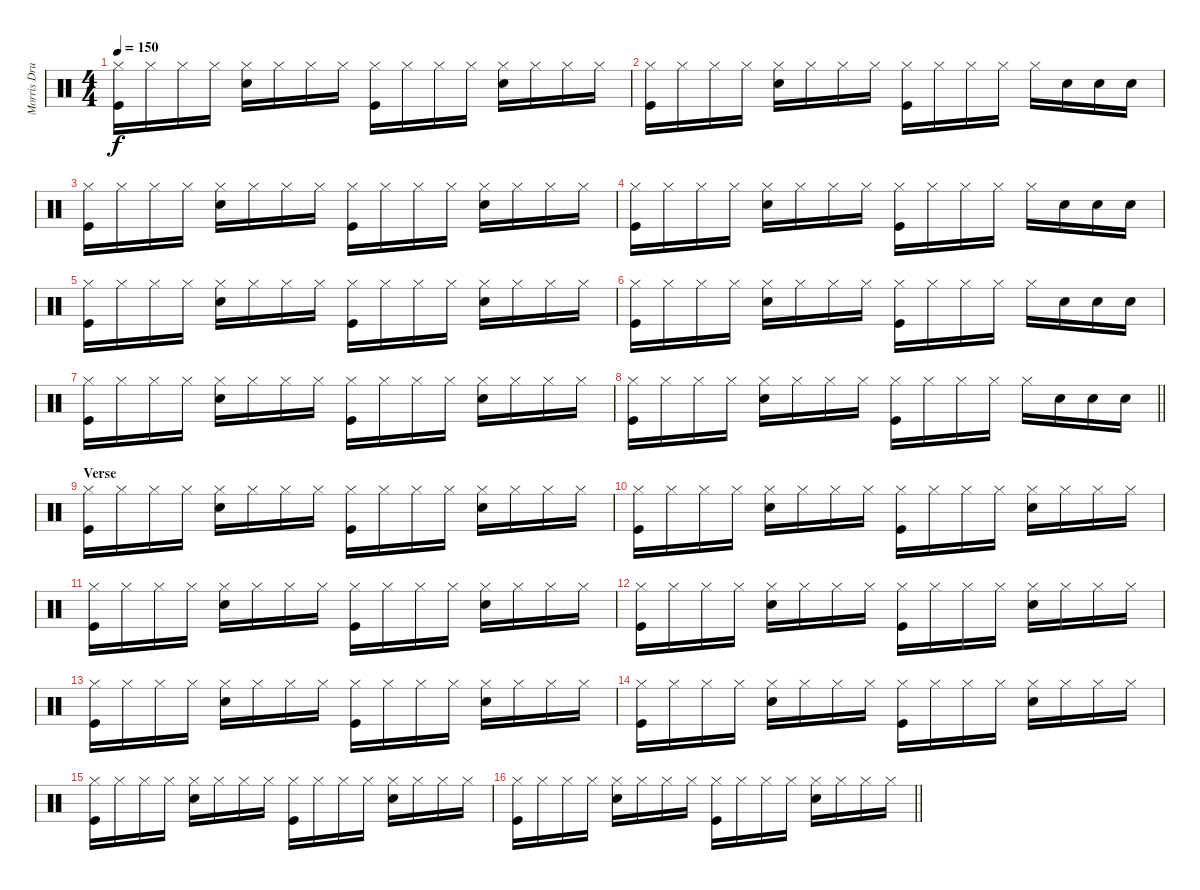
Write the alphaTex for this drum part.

\track ("Morris Drums" "Morris Dru") {instrument percussion}
\staff {score}
\articulation defaults
\ts (4 4)
\tempo 150
\clef neutral
\ks c
("Hi-Hat (closed)" "Kick (hit)").16{dy f} "Hi-Hat (closed)".16 "Hi-Hat (closed)".16 "Hi-Hat (closed)".16 ("Hi-Hat (closed)" "Snare (hit) 2").16 "Hi-Hat (closed)".16 "Hi-Hat (closed)".16 "Hi-Hat (closed)".16 ("Hi-Hat (closed)" "Kick (hit)").16 "Hi-Hat (closed)".16 "Hi-Hat (closed)".16 "Hi-Hat (closed)".16 ("Hi-Hat (closed)" "Snare (hit) 2").16 "Hi-Hat (closed)".16 "Hi-Hat (closed)".16 "Hi-Hat (closed)".16 |
("Hi-Hat (closed)" "Kick (hit)").16 "Hi-Hat (closed)".16 "Hi-Hat (closed)".16 "Hi-Hat (closed)".16 ("Hi-Hat (closed)" "Snare (hit) 2").16 "Hi-Hat (closed)".16 "Hi-Hat (closed)".16 "Hi-Hat (closed)".16 ("Hi-Hat (closed)" "Kick (hit)").16 "Hi-Hat (closed)".16 "Hi-Hat (closed)".16 "Hi-Hat (closed)".16 "Hi-Hat (closed)".16 "Snare (hit) 2".16 "Snare (hit) 2".16 "Snare (hit) 2".16 |
("Hi-Hat (closed)" "Kick (hit)").16 "Hi-Hat (closed)".16 "Hi-Hat (closed)".16 "Hi-Hat (closed)".16 ("Hi-Hat (closed)" "Snare (hit) 2").16 "Hi-Hat (closed)".16 "Hi-Hat (closed)".16 "Hi-Hat (closed)".16 ("Hi-Hat (closed)" "Kick (hit)").16 "Hi-Hat (closed)".16 "Hi-Hat (closed)".16 "Hi-Hat (closed)".16 ("Hi-Hat (closed)" "Snare (hit) 2").16 "Hi-Hat (closed)".16 "Hi-Hat (closed)".16 "Hi-Hat (closed)".16 |
("Hi-Hat (closed)" "Kick (hit)").16 "Hi-Hat (closed)".16 "Hi-Hat (closed)".16 "Hi-Hat (closed)".16 ("Hi-Hat (closed)" "Snare (hit) 2").16 "Hi-Hat (closed)".16 "Hi-Hat (closed)".16 "Hi-Hat (closed)".16 ("Hi-Hat (closed)" "Kick (hit)").16 "Hi-Hat (closed)".16 "Hi-Hat (closed)".16 "Hi-Hat (closed)".16 "Hi-Hat (closed)".16 "Snare (hit) 2".16 "Snare (hit) 2".16 "Snare (hit) 2".16 |
("Hi-Hat (closed)" "Kick (hit)").16 "Hi-Hat (closed)".16 "Hi-Hat (closed)".16 "Hi-Hat (closed)".16 ("Hi-Hat (closed)" "Snare (hit) 2").16 "Hi-Hat (closed)".16 "Hi-Hat (closed)".16 "Hi-Hat (closed)".16 ("Hi-Hat (closed)" "Kick (hit)").16 "Hi-Hat (closed)".16 "Hi-Hat (closed)".16 "Hi-Hat (closed)".16 ("Hi-Hat (closed)" "Snare (hit) 2").16 "Hi-Hat (closed)".16 "Hi-Hat (closed)".16 "Hi-Hat (closed)".16 |
("Hi-Hat (closed)" "Kick (hit)").16 "Hi-Hat (closed)".16 "Hi-Hat (closed)".16 "Hi-Hat (closed)".16 ("Hi-Hat (closed)" "Snare (hit) 2").16 "Hi-Hat (closed)".16 "Hi-Hat (closed)".16 "Hi-Hat (closed)".16 ("Hi-Hat (closed)" "Kick (hit)").16 "Hi-Hat (closed)".16 "Hi-Hat (closed)".16 "Hi-Hat (closed)".16 "Hi-Hat (closed)".16 "Snare (hit) 2".16 "Snare (hit) 2".16 "Snare (hit) 2".16 |
("Hi-Hat (closed)" "Kick (hit)").16 "Hi-Hat (closed)".16 "Hi-Hat (closed)".16 "Hi-Hat (closed)".16 ("Hi-Hat (closed)" "Snare (hit) 2").16 "Hi-Hat (closed)".16 "Hi-Hat (closed)".16 "Hi-Hat (closed)".16 ("Hi-Hat (closed)" "Kick (hit)").16 "Hi-Hat (closed)".16 "Hi-Hat (closed)".16 "Hi-Hat (closed)".16 ("Hi-Hat (closed)" "Snare (hit) 2").16 "Hi-Hat (closed)".16 "Hi-Hat (closed)".16 "Hi-Hat (closed)".16 |
\barLineRight lightlight
("Hi-Hat (closed)" "Kick (hit)").16 "Hi-Hat (closed)".16 "Hi-Hat (closed)".16 "Hi-Hat (closed)".16 ("Hi-Hat (closed)" "Snare (hit) 2").16 "Hi-Hat (closed)".16 "Hi-Hat (closed)".16 "Hi-Hat (closed)".16 ("Hi-Hat (closed)" "Kick (hit)").16 "Hi-Hat (closed)".16 "Hi-Hat (closed)".16 "Hi-Hat (closed)".16 "Hi-Hat (closed)".16 "Snare (hit) 2".16 "Snare (hit) 2".16 "Snare (hit) 2".16 |
\section ("" "Verse")
("Hi-Hat (closed)" "Kick (hit)").16 "Hi-Hat (closed)".16 "Hi-Hat (closed)".16 "Hi-Hat (closed)".16 ("Hi-Hat (closed)" "Snare (hit) 2").16 "Hi-Hat (closed)".16 "Hi-Hat (closed)".16 "Hi-Hat (closed)".16 ("Hi-Hat (closed)" "Kick (hit)").16 "Hi-Hat (closed)".16 "Hi-Hat (closed)".16 "Hi-Hat (closed)".16 ("Hi-Hat (closed)" "Snare (hit) 2").16 "Hi-Hat (closed)".16 "Hi-Hat (closed)".16 "Hi-Hat (closed)".16 |
("Hi-Hat (closed)" "Kick (hit)").16 "Hi-Hat (closed)".16 "Hi-Hat (closed)".16 "Hi-Hat (closed)".16 ("Hi-Hat (closed)" "Snare (hit) 2").16 "Hi-Hat (closed)".16 "Hi-Hat (closed)".16 "Hi-Hat (closed)".16 ("Hi-Hat (closed)" "Kick (hit)").16 "Hi-Hat (closed)".16 "Hi-Hat (closed)".16 "Hi-Hat (closed)".16 ("Hi-Hat (closed)" "Snare (hit) 2").16 "Hi-Hat (closed)".16 "Hi-Hat (closed)".16 "Hi-Hat (closed)".16 |
("Hi-Hat (closed)" "Kick (hit)").16 "Hi-Hat (closed)".16 "Hi-Hat (closed)".16 "Hi-Hat (closed)".16 ("Hi-Hat (closed)" "Snare (hit) 2").16 "Hi-Hat (closed)".16 "Hi-Hat (closed)".16 "Hi-Hat (closed)".16 ("Hi-Hat (closed)" "Kick (hit)").16 "Hi-Hat (closed)".16 "Hi-Hat (closed)".16 "Hi-Hat (closed)".16 ("Hi-Hat (closed)" "Snare (hit) 2").16 "Hi-Hat (closed)".16 "Hi-Hat (closed)".16 "Hi-Hat (closed)".16 |
("Hi-Hat (closed)" "Kick (hit)").16 "Hi-Hat (closed)".16 "Hi-Hat (closed)".16 "Hi-Hat (closed)".16 ("Hi-Hat (closed)" "Snare (hit) 2").16 "Hi-Hat (closed)".16 "Hi-Hat (closed)".16 "Hi-Hat (closed)".16 ("Hi-Hat (closed)" "Kick (hit)").16 "Hi-Hat (closed)".16 "Hi-Hat (closed)".16 "Hi-Hat (closed)".16 ("Hi-Hat (closed)" "Snare (hit) 2").16 "Hi-Hat (closed)".16 "Hi-Hat (closed)".16 "Hi-Hat (closed)".16 |
("Hi-Hat (closed)" "Kick (hit)").16 "Hi-Hat (closed)".16 "Hi-Hat (closed)".16 "Hi-Hat (closed)".16 ("Hi-Hat (closed)" "Snare (hit) 2").16 "Hi-Hat (closed)".16 "Hi-Hat (closed)".16 "Hi-Hat (closed)".16 ("Hi-Hat (closed)" "Kick (hit)").16 "Hi-Hat (closed)".16 "Hi-Hat (closed)".16 "Hi-Hat (closed)".16 ("Hi-Hat (closed)" "Snare (hit) 2").16 "Hi-Hat (closed)".16 "Hi-Hat (closed)".16 "Hi-Hat (closed)".16 |
("Hi-Hat (closed)" "Kick (hit)").16 "Hi-Hat (closed)".16 "Hi-Hat (closed)".16 "Hi-Hat (closed)".16 ("Hi-Hat (closed)" "Snare (hit) 2").16 "Hi-Hat (closed)".16 "Hi-Hat (closed)".16 "Hi-Hat (closed)".16 ("Hi-Hat (closed)" "Kick (hit)").16 "Hi-Hat (closed)".16 "Hi-Hat (closed)".16 "Hi-Hat (closed)".16 ("Hi-Hat (closed)" "Snare (hit) 2").16 "Hi-Hat (closed)".16 "Hi-Hat (closed)".16 "Hi-Hat (closed)".16 |
("Hi-Hat (closed)" "Kick (hit)").16 "Hi-Hat (closed)".16 "Hi-Hat (closed)".16 "Hi-Hat (closed)".16 ("Hi-Hat (closed)" "Snare (hit) 2").16 "Hi-Hat (closed)".16 "Hi-Hat (closed)".16 "Hi-Hat (closed)".16 ("Hi-Hat (closed)" "Kick (hit)").16 "Hi-Hat (closed)".16 "Hi-Hat (closed)".16 "Hi-Hat (closed)".16 ("Hi-Hat (closed)" "Snare (hit) 2").16 "Hi-Hat (closed)".16 "Hi-Hat (closed)".16 "Hi-Hat (closed)".16 |
\barLineRight lightlight
("Hi-Hat (closed)" "Kick (hit)").16 "Hi-Hat (closed)".16 "Hi-Hat (closed)".16 "Hi-Hat (closed)".16 ("Hi-Hat (closed)" "Snare (hit) 2").16 "Hi-Hat (closed)".16 "Hi-Hat (closed)".16 "Hi-Hat (closed)".16 ("Hi-Hat (closed)" "Kick (hit)").16 "Hi-Hat (closed)".16 "Hi-Hat (closed)".16 "Hi-Hat (closed)".16 ("Hi-Hat (closed)" "Snare (hit) 2").16 "Hi-Hat (closed)".16 "Hi-Hat (closed)".16 "Hi-Hat (closed)".16
